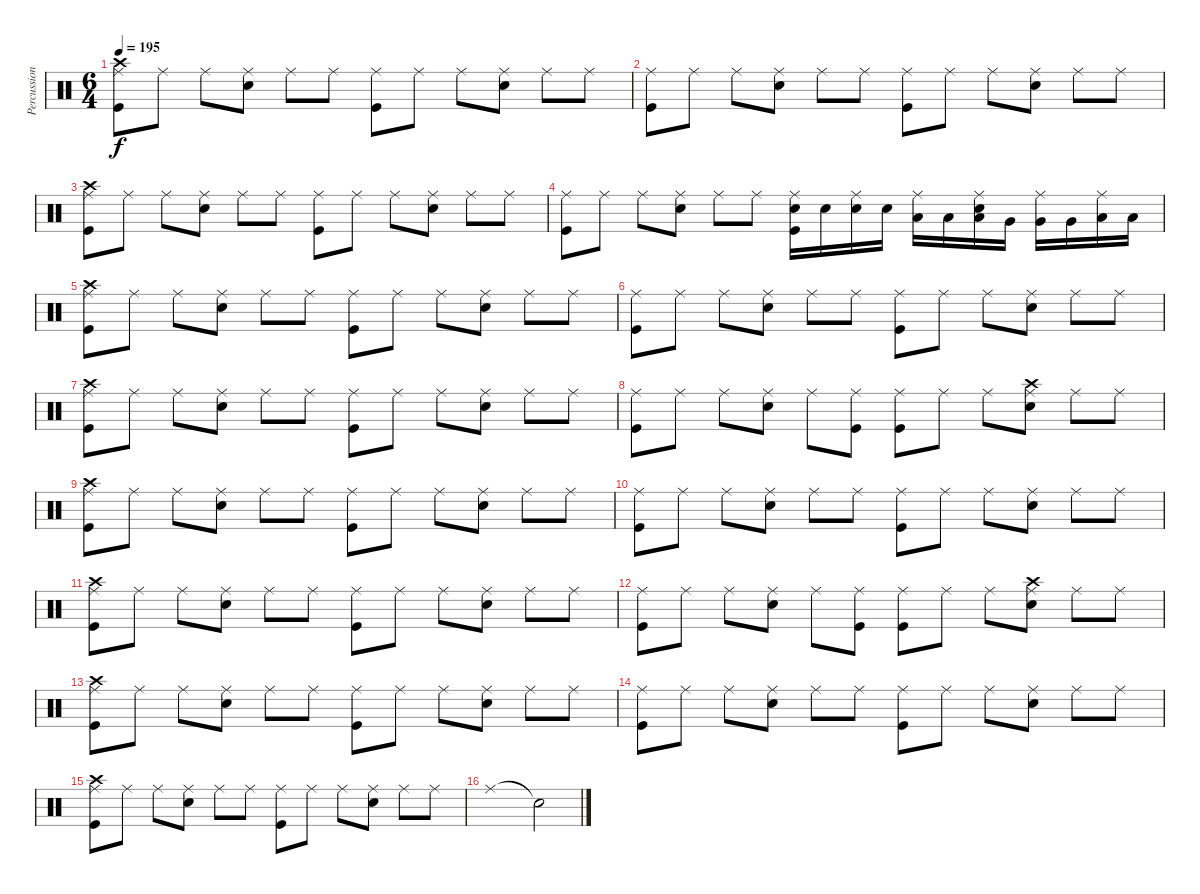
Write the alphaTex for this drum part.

\track ("Percussion" "Percussion") {instrument percussion}
\staff {score}
\articulation defaults
\ts (6 4)
\tempo 195
\clef neutral
\ks c
("Ride (middle)" "Crash high (hit)" "Kick (hit)").8{dy f} "Ride (middle)".8 "Ride (middle)".8 ("Ride (middle)" "Electric Snare (hit)").8 "Ride (middle)".8 "Ride (middle)".8 ("Ride (middle)" "Kick (hit)").8 "Ride (middle)".8 "Ride (middle)".8 ("Ride (middle)" "Electric Snare (hit)").8 "Ride (middle)".8 "Ride (middle)".8 |
("Ride (middle)" "Kick (hit)").8 "Ride (middle)".8 "Ride (middle)".8 ("Ride (middle)" "Electric Snare (hit)").8 "Ride (middle)".8 "Ride (middle)".8 ("Ride (middle)" "Kick (hit)").8 "Ride (middle)".8 "Ride (middle)".8 ("Ride (middle)" "Electric Snare (hit)").8 "Ride (middle)".8 "Ride (middle)".8 |
("Ride (middle)" "Crash high (hit)" "Kick (hit)").8 "Ride (middle)".8 "Ride (middle)".8 ("Ride (middle)" "Electric Snare (hit)").8 "Ride (middle)".8 "Ride (middle)".8 ("Ride (middle)" "Kick (hit)").8 "Ride (middle)".8 "Ride (middle)".8 ("Ride (middle)" "Electric Snare (hit)").8 "Ride (middle)".8 "Ride (middle)".8 |
("Ride (middle)" "Kick (hit)").8 "Ride (middle)".8 "Ride (middle)".8 ("Ride (middle)" "Electric Snare (hit)").8 "Ride (middle)".8 "Ride (middle)".8 ("Ride (middle)" "Electric Snare (hit)" "Kick (hit)").16 "Electric Snare (hit)".16 ("Ride (middle)" "Electric Snare (hit)").16 "Electric Snare (hit)".16 ("Ride (middle)" "Low Tom (hit)").16 "Low Tom (hit)".16 ("Ride (middle)" "Low Tom (hit)" "Electric Snare (hit)").16 "Very Low Tom (hit)".16 ("Ride (middle)" "Very Low Tom (hit)").16 "Very Low Tom (hit)".16 ("Ride (middle)" "Low Floor Tom (hit)").16 "Low Floor Tom (hit)".16 |
("Ride (middle)" "Crash high (hit)" "Kick (hit)").8 "Ride (middle)".8 "Ride (middle)".8 ("Ride (middle)" "Electric Snare (hit)").8 "Ride (middle)".8 "Ride (middle)".8 ("Ride (middle)" "Kick (hit)").8 "Ride (middle)".8 "Ride (middle)".8 ("Ride (middle)" "Electric Snare (hit)").8 "Ride (middle)".8 "Ride (middle)".8 |
("Ride (middle)" "Kick (hit)").8 "Ride (middle)".8 "Ride (middle)".8 ("Ride (middle)" "Electric Snare (hit)").8 "Ride (middle)".8 "Ride (middle)".8 ("Ride (middle)" "Kick (hit)").8 "Ride (middle)".8 "Ride (middle)".8 ("Ride (middle)" "Electric Snare (hit)").8 "Ride (middle)".8 "Ride (middle)".8 |
("Ride (middle)" "Crash high (hit)" "Kick (hit)").8 "Ride (middle)".8 "Ride (middle)".8 ("Ride (middle)" "Electric Snare (hit)").8 "Ride (middle)".8 "Ride (middle)".8 ("Ride (middle)" "Kick (hit)").8 "Ride (middle)".8 "Ride (middle)".8 ("Ride (middle)" "Electric Snare (hit)").8 "Ride (middle)".8 "Ride (middle)".8 |
("Ride (middle)" "Kick (hit)").8 "Ride (middle)".8 "Ride (middle)".8 ("Ride (middle)" "Electric Snare (hit)").8 "Ride (middle)".8 ("Ride (middle)" "Kick (hit)").8 ("Ride (middle)" "Kick (hit)").8 "Ride (middle)".8 "Ride (middle)".8 ("Ride (middle)" "Crash high (hit)" "Electric Snare (hit)").8 "Ride (middle)".8 "Ride (middle)".8 |
("Ride (middle)" "Crash high (hit)" "Kick (hit)").8 "Ride (middle)".8 "Ride (middle)".8 ("Ride (middle)" "Electric Snare (hit)").8 "Ride (middle)".8 "Ride (middle)".8 ("Ride (middle)" "Kick (hit)").8 "Ride (middle)".8 "Ride (middle)".8 ("Ride (middle)" "Electric Snare (hit)").8 "Ride (middle)".8 "Ride (middle)".8 |
("Ride (middle)" "Kick (hit)").8 "Ride (middle)".8 "Ride (middle)".8 ("Ride (middle)" "Electric Snare (hit)").8 "Ride (middle)".8 "Ride (middle)".8 ("Ride (middle)" "Kick (hit)").8 "Ride (middle)".8 "Ride (middle)".8 ("Ride (middle)" "Electric Snare (hit)").8 "Ride (middle)".8 "Ride (middle)".8 |
("Ride (middle)" "Crash high (hit)" "Kick (hit)").8 "Ride (middle)".8 "Ride (middle)".8 ("Ride (middle)" "Electric Snare (hit)").8 "Ride (middle)".8 "Ride (middle)".8 ("Ride (middle)" "Kick (hit)").8 "Ride (middle)".8 "Ride (middle)".8 ("Ride (middle)" "Electric Snare (hit)").8 "Ride (middle)".8 "Ride (middle)".8 |
("Ride (middle)" "Kick (hit)").8 "Ride (middle)".8 "Ride (middle)".8 ("Ride (middle)" "Electric Snare (hit)").8 "Ride (middle)".8 ("Ride (middle)" "Kick (hit)").8 ("Ride (middle)" "Kick (hit)").8 "Ride (middle)".8 "Ride (middle)".8 ("Ride (middle)" "Crash high (hit)" "Electric Snare (hit)").8 "Ride (middle)".8 "Ride (middle)".8 |
("Ride (middle)" "Crash high (hit)" "Kick (hit)").8 "Ride (middle)".8 "Ride (middle)".8 ("Ride (middle)" "Electric Snare (hit)").8 "Ride (middle)".8 "Ride (middle)".8 ("Ride (middle)" "Kick (hit)").8 "Ride (middle)".8 "Ride (middle)".8 ("Ride (middle)" "Electric Snare (hit)").8 "Ride (middle)".8 "Ride (middle)".8 |
("Ride (middle)" "Kick (hit)").8 "Ride (middle)".8 "Ride (middle)".8 ("Ride (middle)" "Electric Snare (hit)").8 "Ride (middle)".8 "Ride (middle)".8 ("Ride (middle)" "Kick (hit)").8 "Ride (middle)".8 "Ride (middle)".8 ("Ride (middle)" "Electric Snare (hit)").8 "Ride (middle)".8 "Ride (middle)".8 |
("Ride (middle)" "Crash high (hit)" "Kick (hit)").8 "Ride (middle)".8 "Ride (middle)".8 ("Ride (middle)" "Electric Snare (hit)").8 "Ride (middle)".8 "Ride (middle)".8 ("Ride (middle)" "Kick (hit)").8 "Ride (middle)".8 "Ride (middle)".8 ("Ride (middle)" "Electric Snare (hit)").8 "Ride (middle)".8 "Ride (middle)".8 |
"Ride (middle)".1 "Snare (hit)"{t}.2
